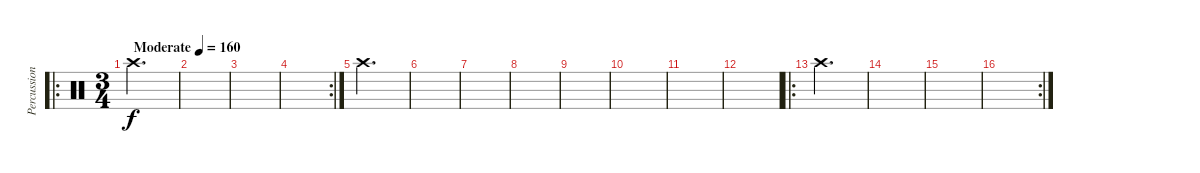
\track ("Percussion" "Percussion") {instrument percussion}
\staff {score}
\articulation defaults
\ro
\ts (3 4)
\tempo (160 "Moderate")
\clef neutral
\ks c "Crash high (hit)".2{d dy f}
|
|
|
\rc 2
|
"Crash high (hit)".2{d} |
|
|
|
|
|
|
|
\ro "Crash high (hit)".2{d}
|
|
|
\rc 2
